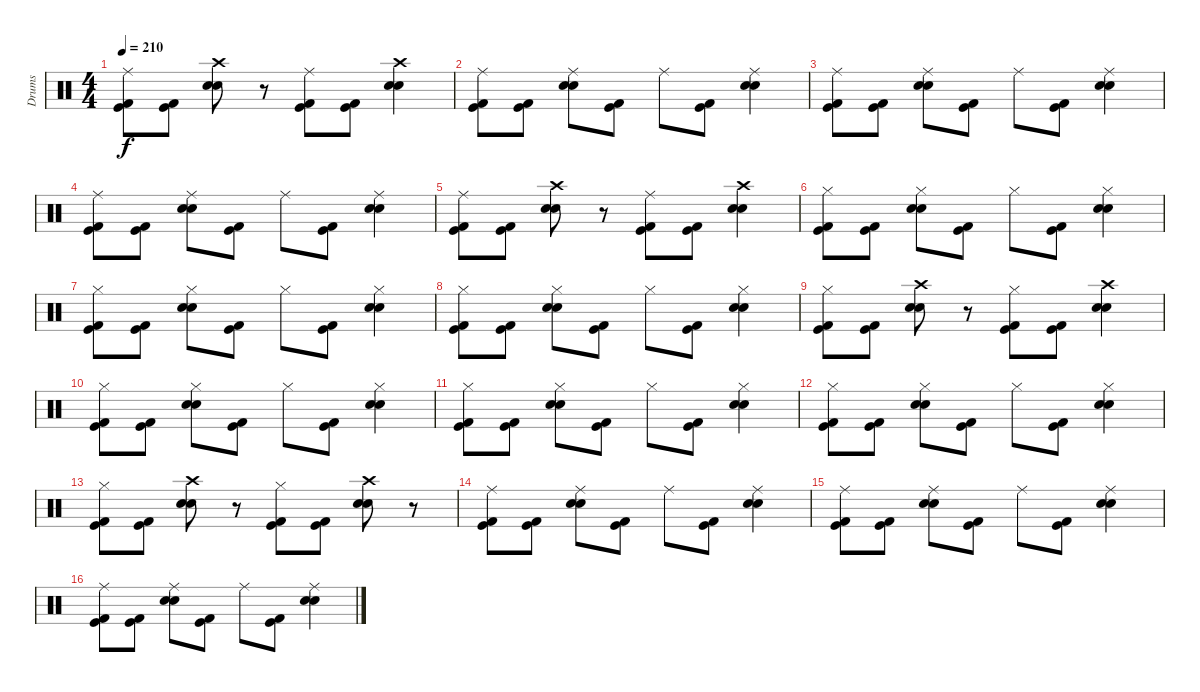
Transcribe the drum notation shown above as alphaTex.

\track ("Drums" "Drums") {instrument percussion}
\staff {score}
\articulation defaults
\ts (4 4)
\tempo 210
\clef neutral
\ks c
("Ride (middle)" "Kick (hit) 2" "Kick (hit)").8{dy f} ("Kick (hit) 2" "Kick (hit)").8 ("Crash high (hit)" "Electric Snare (hit)" "Snare (hit) 2").8 r.8 ("Ride (middle)" "Kick (hit) 2" "Kick (hit)").8 ("Kick (hit) 2" "Kick (hit)").8 ("Crash high (hit)" "Electric Snare (hit)" "Snare (hit) 2").4 |
("Ride (middle)" "Kick (hit) 2" "Kick (hit)").8 ("Kick (hit) 2" "Kick (hit)").8 ("Ride (middle)" "Electric Snare (hit)" "Snare (hit) 2").8 ("Kick (hit) 2" "Kick (hit)").8 "Ride (middle)".8 ("Kick (hit) 2" "Kick (hit)").8 ("Ride (middle)" "Electric Snare (hit)" "Snare (hit) 2").4 |
("Ride (middle)" "Kick (hit) 2" "Kick (hit)").8 ("Kick (hit) 2" "Kick (hit)").8 ("Ride (middle)" "Electric Snare (hit)" "Snare (hit) 2").8 ("Kick (hit) 2" "Kick (hit)").8 "Ride (middle)".8 ("Kick (hit) 2" "Kick (hit)").8 ("Ride (middle)" "Electric Snare (hit)" "Snare (hit) 2").4 |
("Ride (middle)" "Kick (hit) 2" "Kick (hit)").8 ("Kick (hit) 2" "Kick (hit)").8 ("Ride (middle)" "Electric Snare (hit)" "Snare (hit) 2").8 ("Kick (hit) 2" "Kick (hit)").8 "Ride (middle)".8 ("Kick (hit) 2" "Kick (hit)").8 ("Ride (middle)" "Electric Snare (hit)" "Snare (hit) 2").4 |
("Ride (middle)" "Kick (hit) 2" "Kick (hit)").8 ("Kick (hit) 2" "Kick (hit)").8 ("Crash high (hit)" "Electric Snare (hit)" "Snare (hit) 2").8 r.8 ("Ride (middle)" "Kick (hit) 2" "Kick (hit)").8 ("Kick (hit) 2" "Kick (hit)").8 ("Crash high (hit)" "Electric Snare (hit)" "Snare (hit) 2").4 |
("Hi-Hat (closed)" "Kick (hit) 2" "Kick (hit)").8 ("Kick (hit) 2" "Kick (hit)").8 ("Hi-Hat (closed)" "Electric Snare (hit)" "Snare (hit) 2").8 ("Kick (hit) 2" "Kick (hit)").8 "Hi-Hat (closed)".8 ("Kick (hit) 2" "Kick (hit)").8 ("Hi-Hat (closed)" "Electric Snare (hit)" "Snare (hit) 2").4 |
("Hi-Hat (closed)" "Kick (hit) 2" "Kick (hit)").8 ("Kick (hit) 2" "Kick (hit)").8 ("Hi-Hat (closed)" "Electric Snare (hit)" "Snare (hit) 2").8 ("Kick (hit) 2" "Kick (hit)").8 "Hi-Hat (closed)".8 ("Kick (hit) 2" "Kick (hit)").8 ("Hi-Hat (closed)" "Electric Snare (hit)" "Snare (hit) 2").4 |
("Hi-Hat (closed)" "Kick (hit) 2" "Kick (hit)").8 ("Kick (hit) 2" "Kick (hit)").8 ("Hi-Hat (closed)" "Electric Snare (hit)" "Snare (hit) 2").8 ("Kick (hit) 2" "Kick (hit)").8 "Hi-Hat (closed)".8 ("Kick (hit) 2" "Kick (hit)").8 ("Hi-Hat (closed)" "Electric Snare (hit)" "Snare (hit) 2").4 |
("Hi-Hat (closed)" "Kick (hit) 2" "Kick (hit)").8 ("Kick (hit) 2" "Kick (hit)").8 ("Crash high (hit)" "Electric Snare (hit)" "Snare (hit) 2").8 r.8 ("Hi-Hat (closed)" "Kick (hit) 2" "Kick (hit)").8 ("Kick (hit) 2" "Kick (hit)").8 ("Crash high (hit)" "Electric Snare (hit)" "Snare (hit) 2").4 |
("Hi-Hat (closed)" "Kick (hit) 2" "Kick (hit)").8 ("Kick (hit) 2" "Kick (hit)").8 ("Hi-Hat (closed)" "Electric Snare (hit)" "Snare (hit) 2").8 ("Kick (hit) 2" "Kick (hit)").8 "Hi-Hat (closed)".8 ("Kick (hit) 2" "Kick (hit)").8 ("Hi-Hat (closed)" "Electric Snare (hit)" "Snare (hit) 2").4 |
("Hi-Hat (closed)" "Kick (hit) 2" "Kick (hit)").8 ("Kick (hit) 2" "Kick (hit)").8 ("Hi-Hat (closed)" "Electric Snare (hit)" "Snare (hit) 2").8 ("Kick (hit) 2" "Kick (hit)").8 "Hi-Hat (closed)".8 ("Kick (hit) 2" "Kick (hit)").8 ("Hi-Hat (closed)" "Electric Snare (hit)" "Snare (hit) 2").4 |
("Hi-Hat (closed)" "Kick (hit) 2" "Kick (hit)").8 ("Kick (hit) 2" "Kick (hit)").8 ("Hi-Hat (closed)" "Electric Snare (hit)" "Snare (hit) 2").8 ("Kick (hit) 2" "Kick (hit)").8 "Hi-Hat (closed)".8 ("Kick (hit) 2" "Kick (hit)").8 ("Hi-Hat (closed)" "Electric Snare (hit)" "Snare (hit) 2").4 |
("Hi-Hat (closed)" "Kick (hit) 2" "Kick (hit)").8 ("Kick (hit) 2" "Kick (hit)").8 ("Crash high (hit)" "Electric Snare (hit)" "Snare (hit) 2").8 r.8 ("Hi-Hat (closed)" "Kick (hit) 2" "Kick (hit)").8 ("Kick (hit) 2" "Kick (hit)").8 ("Crash high (hit)" "Electric Snare (hit)" "Snare (hit) 2").8 r.8 |
("Ride (middle)" "Kick (hit) 2" "Kick (hit)").8 ("Kick (hit) 2" "Kick (hit)").8 ("Ride (middle)" "Electric Snare (hit)" "Snare (hit) 2").8 ("Kick (hit) 2" "Kick (hit)").8 "Ride (middle)".8 ("Kick (hit) 2" "Kick (hit)").8 ("Ride (middle)" "Electric Snare (hit)" "Snare (hit) 2").4 |
("Ride (middle)" "Kick (hit) 2" "Kick (hit)").8 ("Kick (hit) 2" "Kick (hit)").8 ("Ride (middle)" "Electric Snare (hit)" "Snare (hit) 2").8 ("Kick (hit) 2" "Kick (hit)").8 "Ride (middle)".8 ("Kick (hit) 2" "Kick (hit)").8 ("Ride (middle)" "Electric Snare (hit)" "Snare (hit) 2").4 |
("Ride (middle)" "Kick (hit) 2" "Kick (hit)").8 ("Kick (hit) 2" "Kick (hit)").8 ("Ride (middle)" "Electric Snare (hit)" "Snare (hit) 2").8 ("Kick (hit) 2" "Kick (hit)").8 "Ride (middle)".8 ("Kick (hit) 2" "Kick (hit)").8 ("Ride (middle)" "Electric Snare (hit)" "Snare (hit) 2").4
